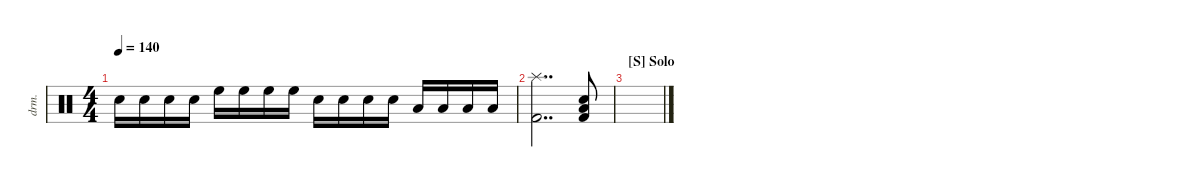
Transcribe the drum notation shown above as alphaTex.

\defaultSystemsLayout 4
\hideDynamics
\bracketExtendMode nobrackets
\otherSystemsTrackNameOrientation horizontal
\track ("Drumkit" "drm.") {instrument percussion}
\staff {score}
\articulation defaults
\ts (4 4)
\tempo 140
\clef neutral
\ks c "Snare (hit) 2".16{dy mf beam Down} "Snare (hit) 2".16{beam Down} "Snare (hit) 2".16{beam Down} "Snare (hit) 2".16{beam Down} "High Floor Tom (hit)".16{beam Down} "High Floor Tom (hit)".16{beam Down} "High Floor Tom (hit)".16{beam Down} "High Floor Tom (hit)".16{beam Down} "Snare (hit) 2".16{beam Down} "Snare (hit) 2".16{beam Down} "Snare (hit) 2".16{beam Down} "Snare (hit) 2".16{beam Down} "Low Tom (hit)".16{beam Up} "Low Tom (hit)".16{beam Up} "Low Tom (hit)".16{beam Up} "Low Tom (hit)".16{beam Up}
|
("Kick (hit) 2" "Splash (hit)").2{dd beam Down} ("Snare (hit) 2" "Kick (hit) 2" "Low Tom (hit)").8{beam Up} |
\section ("S" "Solo")
